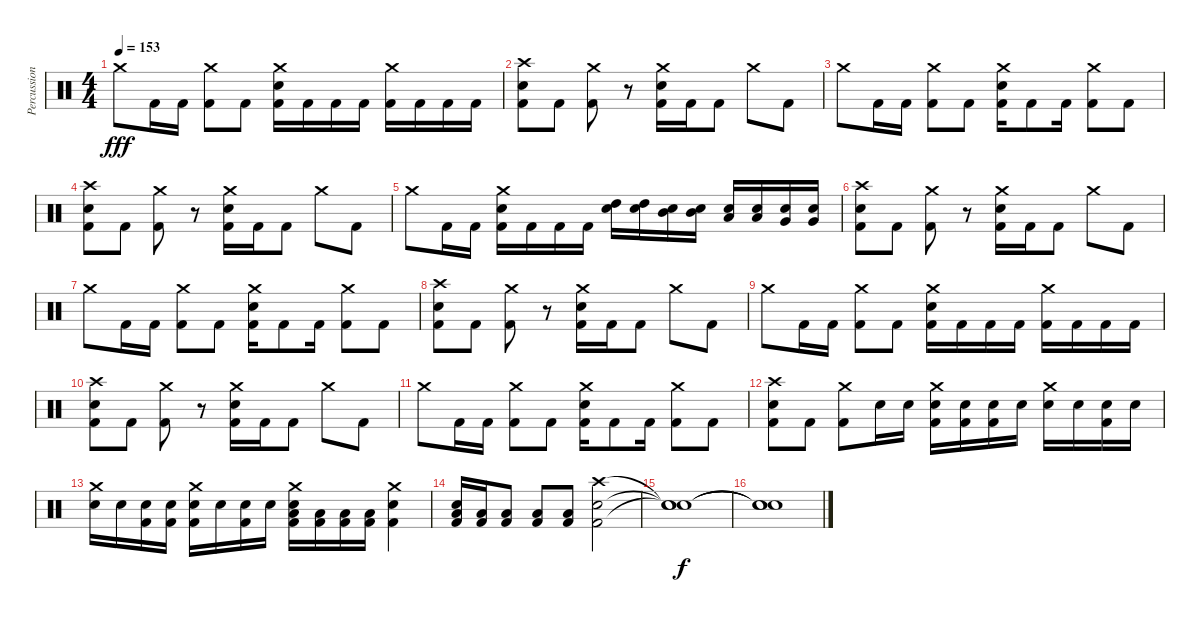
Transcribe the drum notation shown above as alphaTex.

\track ("Percussion" "Percussion") {instrument percussion}
\staff {score}
\articulation defaults
\ts (4 4)
\tempo 153
\clef neutral
\ks c "Crash medium (hit)".8{dy fff} "Kick (hit) 2".16 "Kick (hit) 2".16
("Crash medium (hit)" "Kick (hit) 2").8 "Kick (hit) 2".8 ("Snare (hit) 2" "Crash medium (hit)" "Kick (hit) 2").16 "Kick (hit) 2".16 "Kick (hit) 2".16 "Kick (hit) 2".16 ("Crash medium (hit)" "Kick (hit) 2").16 "Kick (hit) 2".16 "Kick (hit) 2".16 "Kick (hit) 2".16 |
("Crash high (hit)" "Snare (hit) 2" "Kick (hit) 2").8 "Kick (hit) 2".8 ("Crash medium (hit)" "Kick (hit) 2").8 r.8 ("Snare (hit) 2" "Crash medium (hit)" "Kick (hit) 2").16 "Kick (hit) 2".16 "Kick (hit) 2".8 "Crash medium (hit)".8 "Kick (hit) 2".8 |
"Crash medium (hit)".8 "Kick (hit) 2".16 "Kick (hit) 2".16 ("Crash medium (hit)" "Kick (hit) 2").8 "Kick (hit) 2".8 ("Snare (hit) 2" "Crash medium (hit)" "Kick (hit) 2").16 "Kick (hit) 2".8 "Kick (hit) 2".16 ("Crash medium (hit)" "Kick (hit) 2").8 "Kick (hit) 2".8 |
("Crash high (hit)" "Snare (hit) 2" "Kick (hit) 2").8 "Kick (hit) 2".8 ("Crash medium (hit)" "Kick (hit) 2").8 r.8 ("Snare (hit) 2" "Crash medium (hit)" "Kick (hit) 2").16 "Kick (hit) 2".16 "Kick (hit) 2".8 "Crash medium (hit)".8 "Kick (hit) 2".8 |
"Crash medium (hit)".8 "Kick (hit) 2".16 "Kick (hit) 2".16 ("Snare (hit) 2" "Crash medium (hit)" "Kick (hit) 2").16 "Kick (hit) 2".16 "Kick (hit) 2".16 "Kick (hit) 2".16 ("High Tom (hit)" "Snare (hit) 2").16 ("High Tom (hit)" "Snare (hit) 2").16 ("Mid Tom (hit)" "Snare (hit) 2").16 ("Mid Tom (hit)" "Snare (hit) 2").16 ("Low Tom (hit)" "Snare (hit) 2").16 ("Low Tom (hit)" "Snare (hit) 2").16 ("Very Low Tom (hit)" "Snare (hit) 2").16 ("Very Low Tom (hit)" "Snare (hit) 2").16 |
("Crash high (hit)" "Snare (hit) 2" "Kick (hit) 2").8 "Kick (hit) 2".8 ("Crash medium (hit)" "Kick (hit) 2").8 r.8 ("Snare (hit) 2" "Crash medium (hit)" "Kick (hit) 2").16 "Kick (hit) 2".16 "Kick (hit) 2".8 "Crash medium (hit)".8 "Kick (hit) 2".8 |
"Crash medium (hit)".8 "Kick (hit) 2".16 "Kick (hit) 2".16 ("Crash medium (hit)" "Kick (hit) 2").8 "Kick (hit) 2".8 ("Snare (hit) 2" "Crash medium (hit)" "Kick (hit) 2").16 "Kick (hit) 2".8 "Kick (hit) 2".16 ("Crash medium (hit)" "Kick (hit) 2").8 "Kick (hit) 2".8 |
("Crash high (hit)" "Snare (hit) 2" "Kick (hit) 2").8 "Kick (hit) 2".8 ("Crash medium (hit)" "Kick (hit) 2").8 r.8 ("Snare (hit) 2" "Crash medium (hit)" "Kick (hit) 2").16 "Kick (hit) 2".16 "Kick (hit) 2".8 "Crash medium (hit)".8 "Kick (hit) 2".8 |
"Crash medium (hit)".8 "Kick (hit) 2".16 "Kick (hit) 2".16 ("Crash medium (hit)" "Kick (hit) 2").8 "Kick (hit) 2".8 ("Snare (hit) 2" "Crash medium (hit)" "Kick (hit) 2").16 "Kick (hit) 2".16 "Kick (hit) 2".16 "Kick (hit) 2".16 ("Crash medium (hit)" "Kick (hit) 2").16 "Kick (hit) 2".16 "Kick (hit) 2".16 "Kick (hit) 2".16 |
("Crash high (hit)" "Snare (hit) 2" "Kick (hit) 2").8 "Kick (hit) 2".8 ("Crash medium (hit)" "Kick (hit) 2").8 r.8 ("Snare (hit) 2" "Crash medium (hit)" "Kick (hit) 2").16 "Kick (hit) 2".16 "Kick (hit) 2".8 "Crash medium (hit)".8 "Kick (hit) 2".8 |
"Crash medium (hit)".8 "Kick (hit) 2".16 "Kick (hit) 2".16 ("Crash medium (hit)" "Kick (hit) 2").8 "Kick (hit) 2".8 ("Snare (hit) 2" "Crash medium (hit)" "Kick (hit) 2").16 "Kick (hit) 2".8 "Kick (hit) 2".16 ("Crash medium (hit)" "Kick (hit) 2").8 "Kick (hit) 2".8 |
("Crash high (hit)" "Snare (hit) 2" "Kick (hit) 2").8 "Kick (hit) 2".8 ("Crash medium (hit)" "Kick (hit) 2").8 "Snare (hit) 2".16 "Snare (hit) 2".16 ("Crash medium (hit)" "Snare (hit) 2" "Kick (hit) 2").16 ("Snare (hit) 2" "Kick (hit) 2").16 ("Snare (hit) 2" "Kick (hit) 2").16 "Snare (hit) 2".16 ("Crash medium (hit)" "Snare (hit) 2").16 "Snare (hit) 2".16 ("Snare (hit) 2" "Kick (hit) 2").16 "Snare (hit) 2".16 |
("Crash medium (hit)" "Snare (hit) 2").16 "Snare (hit) 2".16 ("Snare (hit) 2" "Kick (hit) 2").16 ("Snare (hit) 2" "Kick (hit) 2").16 ("Crash medium (hit)" "Snare (hit) 2" "Kick (hit) 2").16 "Snare (hit) 2".16 ("Snare (hit) 2" "Kick (hit) 2").16 "Snare (hit) 2".16 ("Snare (hit) 2" "Low Floor Tom (hit)" "Crash medium (hit)" "Kick (hit) 2").16 ("Low Floor Tom (hit)" "Kick (hit) 2").16 ("Low Floor Tom (hit)" "Kick (hit) 2").16 ("Low Floor Tom (hit)" "Kick (hit) 2").16 ("Crash medium (hit)" "Snare (hit) 2" "Kick (hit) 2").4 |
("Low Floor Tom (hit)" "Snare (hit) 2" "Kick (hit) 2").16 ("Low Floor Tom (hit)" "Kick (hit) 2").16 ("Low Floor Tom (hit)" "Kick (hit) 2").8 ("Low Floor Tom (hit)" "Kick (hit) 2").8 ("Low Floor Tom (hit)" "Kick (hit) 2").8 ("Crash high (hit)" "Snare (hit) 2" "Kick (hit) 2").2 |
("Snare (hit)"{t} "Snare (hit)"{t} "Snare (hit)"{t}).1{dy f} |
("Snare (hit)"{t} "Snare (hit)"{t} "Snare (hit)"{t}).1
